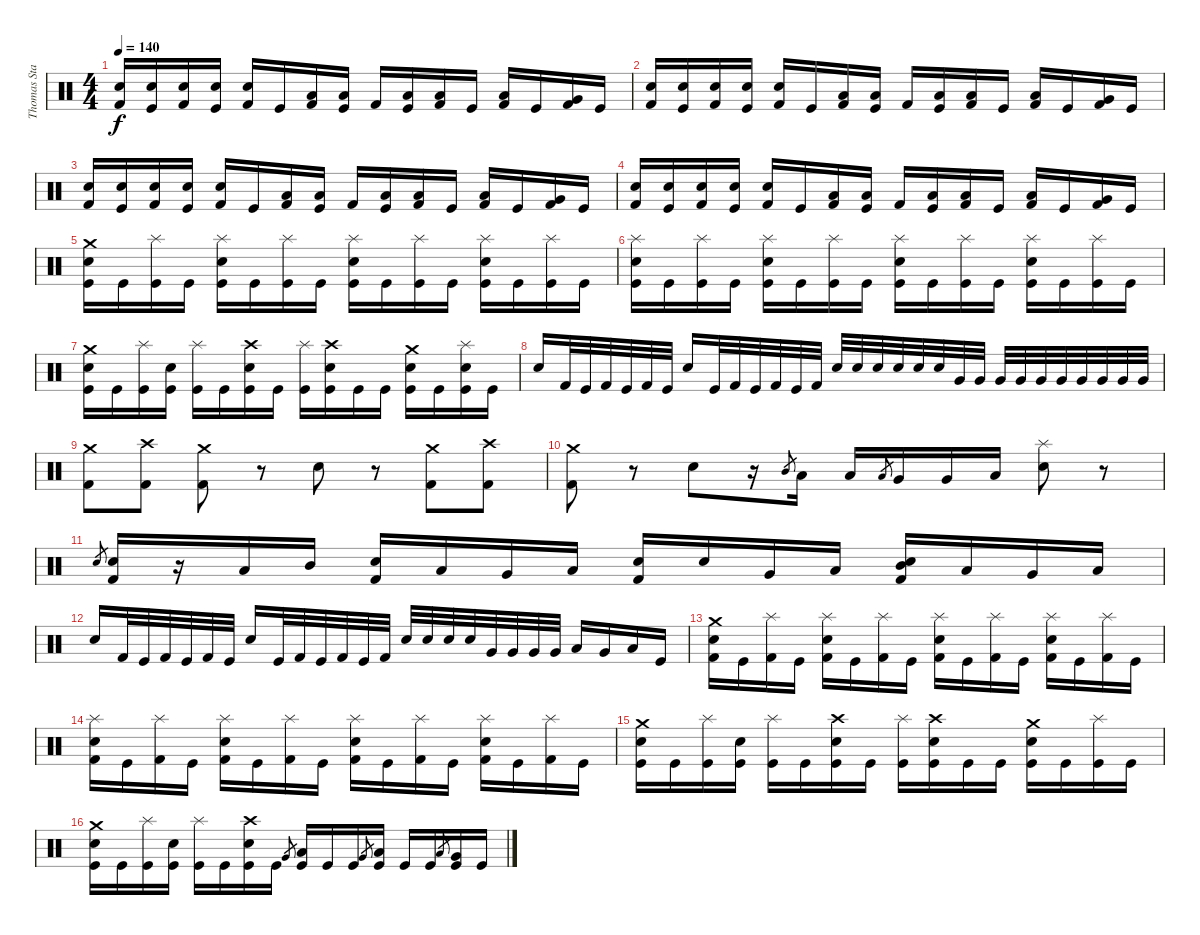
\track ("Thomas Stauch" "Thomas Sta") {instrument percussion}
\staff {score}
\articulation defaults
\ts (4 4)
\tempo 140
\clef neutral
\ks c
("Electric Snare (hit)" "Kick (hit) 2").16{dy f} ("Electric Snare (hit)" "Kick (hit)").16 ("Electric Snare (hit)" "Kick (hit) 2").16 ("Electric Snare (hit)" "Kick (hit)").16 ("Electric Snare (hit)" "Kick (hit) 2").16 "Kick (hit)".16 ("Low Tom (hit)" "Kick (hit) 2").16 ("Low Tom (hit)" "Kick (hit)").16 "Kick (hit) 2".16 ("Low Tom (hit)" "Kick (hit)").16 ("Low Tom (hit)" "Kick (hit) 2").16 "Kick (hit)".16 ("Low Tom (hit)" "Kick (hit) 2").16 "Kick (hit)".16 ("Very Low Tom (hit)" "Kick (hit) 2").16 "Kick (hit)".16 |
("Electric Snare (hit)" "Kick (hit) 2").16 ("Electric Snare (hit)" "Kick (hit)").16 ("Electric Snare (hit)" "Kick (hit) 2").16 ("Electric Snare (hit)" "Kick (hit)").16 ("Electric Snare (hit)" "Kick (hit) 2").16 "Kick (hit)".16 ("Low Tom (hit)" "Kick (hit) 2").16 ("Low Tom (hit)" "Kick (hit)").16 "Kick (hit) 2".16 ("Low Tom (hit)" "Kick (hit)").16 ("Low Tom (hit)" "Kick (hit) 2").16 "Kick (hit)".16 ("Low Tom (hit)" "Kick (hit) 2").16 "Kick (hit)".16 ("Very Low Tom (hit)" "Kick (hit) 2").16 "Kick (hit)".16 |
("Electric Snare (hit)" "Kick (hit) 2").16 ("Electric Snare (hit)" "Kick (hit)").16 ("Electric Snare (hit)" "Kick (hit) 2").16 ("Electric Snare (hit)" "Kick (hit)").16 ("Electric Snare (hit)" "Kick (hit) 2").16 "Kick (hit)".16 ("Low Tom (hit)" "Kick (hit) 2").16 ("Low Tom (hit)" "Kick (hit)").16 "Kick (hit) 2".16 ("Low Tom (hit)" "Kick (hit)").16 ("Low Tom (hit)" "Kick (hit) 2").16 "Kick (hit)".16 ("Low Tom (hit)" "Kick (hit) 2").16 "Kick (hit)".16 ("Very Low Tom (hit)" "Kick (hit) 2").16 "Kick (hit)".16 |
("Electric Snare (hit)" "Kick (hit) 2").16 ("Electric Snare (hit)" "Kick (hit)").16 ("Electric Snare (hit)" "Kick (hit) 2").16 ("Electric Snare (hit)" "Kick (hit)").16 ("Electric Snare (hit)" "Kick (hit) 2").16 "Kick (hit)".16 ("Low Tom (hit)" "Kick (hit) 2").16 ("Low Tom (hit)" "Kick (hit)").16 "Kick (hit) 2".16 ("Low Tom (hit)" "Kick (hit)").16 ("Low Tom (hit)" "Kick (hit) 2").16 "Kick (hit)".16 ("Low Tom (hit)" "Kick (hit) 2").16 "Kick (hit)".16 ("Very Low Tom (hit)" "Kick (hit) 2").16 "Kick (hit)".16 |
("Crash medium (hit)" "Electric Snare (hit)" "Kick (hit)").16 "Kick (hit)".16 ("Splash (hit)" "Kick (hit)").16 "Kick (hit)".16 ("Splash (hit)" "Electric Snare (hit)" "Kick (hit)").16 "Kick (hit)".16 ("Splash (hit)" "Kick (hit)").16 "Kick (hit)".16 ("Splash (hit)" "Electric Snare (hit)" "Kick (hit)").16 "Kick (hit)".16 ("Splash (hit)" "Kick (hit)").16 "Kick (hit)".16 ("Splash (hit)" "Electric Snare (hit)" "Kick (hit)").16 "Kick (hit)".16 ("Splash (hit)" "Kick (hit)").16 "Kick (hit)".16 |
("Splash (hit)" "Electric Snare (hit)" "Kick (hit)").16 "Kick (hit)".16 ("Splash (hit)" "Kick (hit)").16 "Kick (hit)".16 ("Splash (hit)" "Electric Snare (hit)" "Kick (hit)").16 "Kick (hit)".16 ("Splash (hit)" "Kick (hit)").16 "Kick (hit)".16 ("Splash (hit)" "Electric Snare (hit)" "Kick (hit)").16 "Kick (hit)".16 ("Splash (hit)" "Kick (hit)").16 "Kick (hit)".16 ("Splash (hit)" "Electric Snare (hit)" "Kick (hit)").16 "Kick (hit)".16 ("Splash (hit)" "Kick (hit)").16 "Kick (hit)".16 |
("Crash medium (hit)" "Electric Snare (hit)" "Kick (hit)").16 "Kick (hit)".16 ("Splash (hit)" "Kick (hit)").16 ("Electric Snare (hit)" "Kick (hit)").16 ("Splash (hit)" "Kick (hit)").16 "Kick (hit)".16 ("Crash high (hit)" "Electric Snare (hit)" "Kick (hit)").16 "Kick (hit)".16 ("Splash (hit)" "Kick (hit)").16 ("Crash high (hit)" "Electric Snare (hit)" "Kick (hit)").16 "Kick (hit)".16 "Kick (hit)".16 ("Crash medium (hit)" "Electric Snare (hit)" "Kick (hit)").16 "Kick (hit)".16 ("Splash (hit)" "Electric Snare (hit)" "Kick (hit)").16 "Kick (hit)".16 |
"Electric Snare (hit)".16 "Kick (hit) 2".32 "Kick (hit)".32 "Kick (hit) 2".32 "Kick (hit)".32 "Kick (hit) 2".32 "Kick (hit)".32 "Electric Snare (hit)".16 "Kick (hit)".32 "Kick (hit) 2".32 "Kick (hit)".32 "Kick (hit) 2".32 "Kick (hit)".32 "Kick (hit) 2".32 "Electric Snare (hit)".32 "Electric Snare (hit)".32 "Electric Snare (hit)".32 "Electric Snare (hit)".32 "Electric Snare (hit)".32 "Electric Snare (hit)".32 "Very Low Tom (hit)".32 "Very Low Tom (hit)".32 "Very Low Tom (hit)".32 "Very Low Tom (hit)".32 "Very Low Tom (hit)".32 "Very Low Tom (hit)".32 "Very Low Tom (hit)".32 "Very Low Tom (hit)".32 "Very Low Tom (hit)".32 "Very Low Tom (hit)".32 |
("Crash medium (hit)" "Kick (hit) 2").8 ("Crash high (hit)" "Kick (hit) 2").8 ("Crash medium (hit)" "Kick (hit) 2").8 r.8 "Electric Snare (hit)".8 r.8 ("Crash medium (hit)" "Kick (hit) 2").8 ("Crash high (hit)" "Kick (hit) 2").8 |
("Crash medium (hit)" "Kick (hit) 2").8 r.8 "Electric Snare (hit)".8 r.16 "Mid Tom (hit)".8{gr} "Low Tom (hit)".16 "Low Tom (hit)".16 "Low Tom (hit)".8{gr} "Very Low Tom (hit)".16 "Very Low Tom (hit)".16 "Low Floor Tom (hit)".16 ("Splash (hit)" "Electric Snare (hit)").8 r.8 |
"Electric Snare (hit)".8{gr} ("Electric Snare (hit)" "Kick (hit) 2").16 r.16 "Low Tom (hit)".16 "Mid Tom (hit)".16 ("Electric Snare (hit)" "Kick (hit) 2").16 "Low Tom (hit)".16 "Very Low Tom (hit)".16 "Low Floor Tom (hit)".16 ("Electric Snare (hit)" "Kick (hit) 2").16 "Electric Snare (hit)".16 "Very Low Tom (hit)".16 "Low Floor Tom (hit)".16 ("Electric Snare (hit)" "Mid Tom (hit)" "Kick (hit) 2").16 "Low Tom (hit)".16 "Very Low Tom (hit)".16 "Low Floor Tom (hit)".16 |
"Electric Snare (hit)".16 "Kick (hit) 2".32 "Kick (hit)".32 "Kick (hit) 2".32 "Kick (hit)".32 "Kick (hit) 2".32 "Kick (hit)".32 "Electric Snare (hit)".16 "Kick (hit)".32 "Kick (hit) 2".32 "Kick (hit)".32 "Kick (hit) 2".32 "Kick (hit)".32 "Kick (hit) 2".32 "Electric Snare (hit)".32 "Electric Snare (hit)".32 "Electric Snare (hit)".32 "Electric Snare (hit)".32 "Very Low Tom (hit)".32 "Very Low Tom (hit)".32 "Very Low Tom (hit)".32 "Very Low Tom (hit)".32 "Low Tom (hit)".16 "Very Low Tom (hit)".16 "Low Floor Tom (hit)".16 "Kick (hit)".16 |
("Crash medium (hit)" "Electric Snare (hit)" "Kick (hit) 2").16 "Kick (hit)".16 ("Splash (hit)" "Kick (hit) 2").16 "Kick (hit)".16 ("Splash (hit)" "Electric Snare (hit)" "Kick (hit) 2").16 "Kick (hit)".16 ("Splash (hit)" "Kick (hit) 2").16 "Kick (hit)".16 ("Splash (hit)" "Electric Snare (hit)" "Kick (hit) 2").16 "Kick (hit)".16 ("Splash (hit)" "Kick (hit) 2").16 "Kick (hit)".16 ("Splash (hit)" "Electric Snare (hit)" "Kick (hit) 2").16 "Kick (hit)".16 ("Splash (hit)" "Kick (hit) 2").16 "Kick (hit)".16 |
("Splash (hit)" "Electric Snare (hit)" "Kick (hit) 2").16 "Kick (hit)".16 ("Splash (hit)" "Kick (hit) 2").16 "Kick (hit)".16 ("Splash (hit)" "Electric Snare (hit)" "Kick (hit) 2").16 "Kick (hit)".16 ("Splash (hit)" "Kick (hit) 2").16 "Kick (hit)".16 ("Splash (hit)" "Electric Snare (hit)" "Kick (hit) 2").16 "Kick (hit)".16 ("Splash (hit)" "Kick (hit) 2").16 "Kick (hit)".16 ("Splash (hit)" "Electric Snare (hit)" "Kick (hit) 2").16 "Kick (hit)".16 ("Splash (hit)" "Kick (hit) 2").16 "Kick (hit)".16 |
("Crash medium (hit)" "Electric Snare (hit)" "Kick (hit)").16 "Kick (hit)".16 ("Splash (hit)" "Kick (hit)").16 ("Electric Snare (hit)" "Kick (hit)").16 ("Splash (hit)" "Kick (hit)").16 "Kick (hit)".16 ("Crash high (hit)" "Electric Snare (hit)" "Kick (hit)").16 "Kick (hit)".16 ("Splash (hit)" "Kick (hit)").16 ("Crash high (hit)" "Electric Snare (hit)" "Kick (hit)").16 "Kick (hit)".16 "Kick (hit)".16 ("Crash medium (hit)" "Electric Snare (hit)" "Kick (hit)").16 "Kick (hit)".16 ("Splash (hit)" "Kick (hit)").16 "Kick (hit)".16 |
("Crash medium (hit)" "Electric Snare (hit)" "Kick (hit)").16 "Kick (hit)".16 ("Splash (hit)" "Kick (hit)").16 ("Electric Snare (hit)" "Kick (hit)").16 ("Splash (hit)" "Kick (hit)").16 "Kick (hit)".16 ("Crash high (hit)" "Electric Snare (hit)" "Kick (hit)").16 "Kick (hit)".16 "Very Low Tom (hit)".8{gr} ("Low Tom (hit)" "Kick (hit)").16 "Kick (hit)".16 "Kick (hit)".16 "Very Low Tom (hit)".8{gr} ("Low Tom (hit)" "Kick (hit)").16 "Kick (hit)".16 "Kick (hit)".16 "Low Floor Tom (hit)".8{gr} ("Very Low Tom (hit)" "Kick (hit)").16 "Kick (hit)".16
